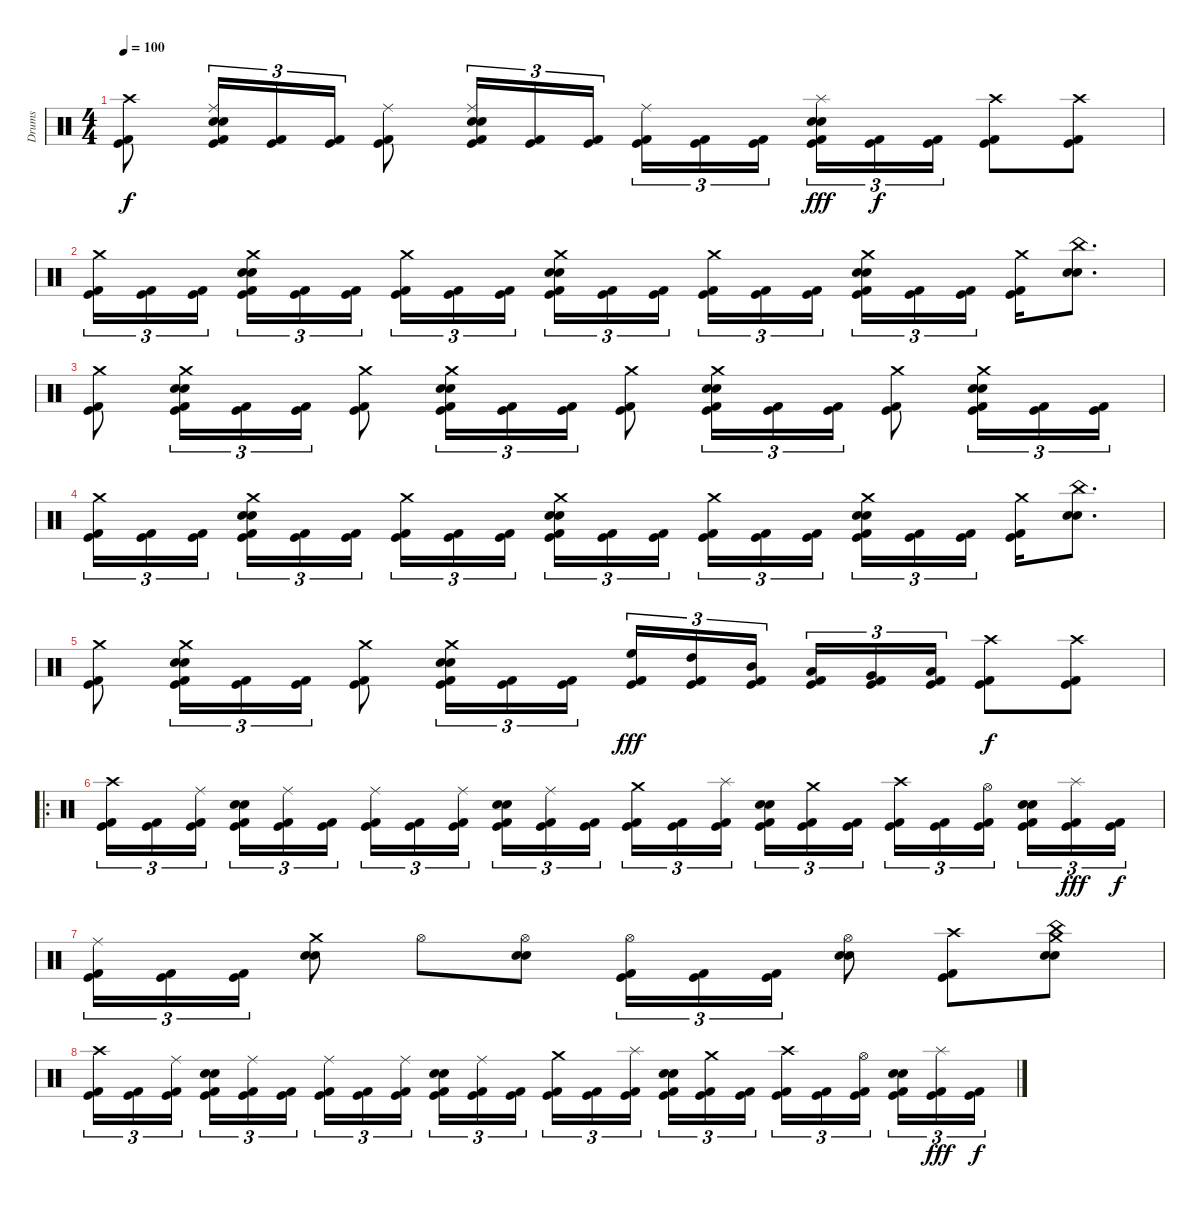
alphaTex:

\track ("Drums" "Drums") {instrument percussion}
\staff {score}
\articulation defaults
\ts (4 4)
\tempo 100
\clef neutral
\ks c
("Crash high (hit)" "Kick (hit)" "Kick (hit) 2").8{dy f} ("Ride (middle)" "Snare (hit) 2" "Electric Snare (hit)" "Kick (hit) 2" "Kick (hit)").16{tu (3 2)} ("Kick (hit) 2" "Kick (hit)").16{tu (3 2)} ("Kick (hit) 2" "Kick (hit)").16{tu (3 2)} ("Ride (middle)" "Kick (hit)" "Kick (hit) 2").8 ("Ride (middle)" "Electric Snare (hit)" "Snare (hit) 2" "Kick (hit)" "Kick (hit) 2").16{tu (3 2)} ("Kick (hit)" "Kick (hit) 2").16{tu (3 2)} ("Kick (hit)" "Kick (hit) 2").16{tu (3 2)} ("Ride (middle)" "Kick (hit)" "Kick (hit) 2").16{tu (3 2)} ("Kick (hit)" "Kick (hit) 2").16{tu (3 2)} ("Kick (hit)" "Kick (hit) 2").16{tu (3 2) beam splitsecondary} ("Splash (hit)" "Electric Snare (hit)" "Snare (hit) 2" "Kick (hit)" "Kick (hit) 2").16{tu (3 2) dy fff} ("Kick (hit)" "Kick (hit) 2").16{tu (3 2) dy f} ("Kick (hit)" "Kick (hit) 2").16{tu (3 2)} ("Crash high (hit)" "Kick (hit)" "Kick (hit) 2").8 ("Crash high (hit)" "Kick (hit)" "Kick (hit) 2").8 |
("Crash medium (hit)" "Kick (hit)" "Kick (hit) 2").16{tu (3 2)} ("Kick (hit)" "Kick (hit) 2").16{tu (3 2)} ("Kick (hit)" "Kick (hit) 2").16{tu (3 2) beam splitsecondary} ("Crash medium (hit)" "Electric Snare (hit)" "Snare (hit) 2" "Kick (hit)" "Kick (hit) 2").16{tu (3 2)} ("Kick (hit)" "Kick (hit) 2").16{tu (3 2)} ("Kick (hit)" "Kick (hit) 2").16{tu (3 2)} ("Crash medium (hit)" "Kick (hit)" "Kick (hit) 2").16{tu (3 2)} ("Kick (hit)" "Kick (hit) 2").16{tu (3 2)} ("Kick (hit)" "Kick (hit) 2").16{tu (3 2) beam splitsecondary} ("Crash medium (hit)" "Snare (hit) 2" "Electric Snare (hit)" "Kick (hit)" "Kick (hit) 2").16{tu (3 2)} ("Kick (hit)" "Kick (hit) 2").16{tu (3 2)} ("Kick (hit)" "Kick (hit) 2").16{tu (3 2)} ("Crash medium (hit)" "Kick (hit)" "Kick (hit) 2").16{tu (3 2)} ("Kick (hit)" "Kick (hit) 2").16{tu (3 2)} ("Kick (hit)" "Kick (hit) 2").16{tu (3 2) beam splitsecondary} ("Crash medium (hit)" "Electric Snare (hit)" "Snare (hit) 2" "Kick (hit)" "Kick (hit) 2").16{tu (3 2)} ("Kick (hit)" "Kick (hit) 2").16{tu (3 2)} ("Kick (hit)" "Kick (hit) 2").16{tu (3 2)} ("Crash medium (hit)" "Kick (hit)" "Kick (hit) 2").16 ("China (hit)" "Snare (hit) 2" "Electric Snare (hit)").8{d} |
("Crash medium (hit)" "Kick (hit)" "Kick (hit) 2").8 ("Crash medium (hit)" "Snare (hit) 2" "Electric Snare (hit)" "Kick (hit) 2" "Kick (hit)").16{tu (3 2)} ("Kick (hit) 2" "Kick (hit)").16{tu (3 2)} ("Kick (hit) 2" "Kick (hit)").16{tu (3 2)} ("Crash medium (hit)" "Kick (hit)" "Kick (hit) 2").8 ("Crash medium (hit)" "Electric Snare (hit)" "Snare (hit) 2" "Kick (hit)" "Kick (hit) 2").16{tu (3 2)} ("Kick (hit)" "Kick (hit) 2").16{tu (3 2)} ("Kick (hit)" "Kick (hit) 2").16{tu (3 2)} ("Crash medium (hit)" "Kick (hit)" "Kick (hit) 2").8 ("Crash medium (hit)" "Electric Snare (hit)" "Snare (hit) 2" "Kick (hit)" "Kick (hit) 2").16{tu (3 2)} ("Kick (hit)" "Kick (hit) 2").16{tu (3 2)} ("Kick (hit)" "Kick (hit) 2").16{tu (3 2)} ("Crash medium (hit)" "Kick (hit)" "Kick (hit) 2").8 ("Crash medium (hit)" "Electric Snare (hit)" "Snare (hit) 2" "Kick (hit)" "Kick (hit) 2").16{tu (3 2)} ("Kick (hit)" "Kick (hit) 2").16{tu (3 2)} ("Kick (hit)" "Kick (hit) 2").16{tu (3 2)} |
("Crash medium (hit)" "Kick (hit)" "Kick (hit) 2").16{tu (3 2)} ("Kick (hit)" "Kick (hit) 2").16{tu (3 2)} ("Kick (hit)" "Kick (hit) 2").16{tu (3 2) beam splitsecondary} ("Crash medium (hit)" "Electric Snare (hit)" "Snare (hit) 2" "Kick (hit)" "Kick (hit) 2").16{tu (3 2)} ("Kick (hit)" "Kick (hit) 2").16{tu (3 2)} ("Kick (hit)" "Kick (hit) 2").16{tu (3 2)} ("Crash medium (hit)" "Kick (hit)" "Kick (hit) 2").16{tu (3 2)} ("Kick (hit)" "Kick (hit) 2").16{tu (3 2)} ("Kick (hit)" "Kick (hit) 2").16{tu (3 2) beam splitsecondary} ("Crash medium (hit)" "Snare (hit) 2" "Electric Snare (hit)" "Kick (hit)" "Kick (hit) 2").16{tu (3 2)} ("Kick (hit)" "Kick (hit) 2").16{tu (3 2)} ("Kick (hit)" "Kick (hit) 2").16{tu (3 2)} ("Crash medium (hit)" "Kick (hit)" "Kick (hit) 2").16{tu (3 2)} ("Kick (hit)" "Kick (hit) 2").16{tu (3 2)} ("Kick (hit)" "Kick (hit) 2").16{tu (3 2) beam splitsecondary} ("Crash medium (hit)" "Electric Snare (hit)" "Snare (hit) 2" "Kick (hit)" "Kick (hit) 2").16{tu (3 2)} ("Kick (hit)" "Kick (hit) 2").16{tu (3 2)} ("Kick (hit)" "Kick (hit) 2").16{tu (3 2)} ("Crash medium (hit)" "Kick (hit)" "Kick (hit) 2").16 ("China (hit)" "Snare (hit) 2" "Electric Snare (hit)").8{d} |
("Crash medium (hit)" "Kick (hit)" "Kick (hit) 2").8 ("Crash medium (hit)" "Snare (hit) 2" "Electric Snare (hit)" "Kick (hit) 2" "Kick (hit)").16{tu (3 2)} ("Kick (hit) 2" "Kick (hit)").16{tu (3 2)} ("Kick (hit) 2" "Kick (hit)").16{tu (3 2)} ("Crash medium (hit)" "Kick (hit)" "Kick (hit) 2").8 ("Crash medium (hit)" "Electric Snare (hit)" "Snare (hit) 2" "Kick (hit)" "Kick (hit) 2").16{tu (3 2)} ("Kick (hit)" "Kick (hit) 2").16{tu (3 2)} ("Kick (hit)" "Kick (hit) 2").16{tu (3 2)} ("High Floor Tom (hit)" "Kick (hit)" "Kick (hit) 2").16{tu (3 2) dy fff} ("High Tom (hit)" "Kick (hit)" "Kick (hit) 2").16{tu (3 2)} ("Mid Tom (hit)" "Kick (hit)" "Kick (hit) 2").16{tu (3 2) beam splitsecondary} ("Low Tom (hit)" "Kick (hit)" "Kick (hit) 2").16{tu (3 2)} ("Very Low Tom (hit)" "Kick (hit)" "Kick (hit) 2").16{tu (3 2)} ("Low Floor Tom (hit)" "Kick (hit)" "Kick (hit) 2").16{tu (3 2)} ("Crash high (hit)" "Kick (hit)" "Kick (hit) 2").8{dy f} ("Crash high (hit)" "Kick (hit)" "Kick (hit) 2").8 |
\ro
("Crash high (hit)" "Kick (hit)" "Kick (hit) 2").16{tu (3 2)} ("Kick (hit)" "Kick (hit) 2").16{tu (3 2)} ("Ride (middle)" "Kick (hit)" "Kick (hit) 2").16{tu (3 2) beam splitsecondary} ("Electric Snare (hit)" "Snare (hit) 2" "Kick (hit)" "Kick (hit) 2").16{tu (3 2)} ("Ride (middle)" "Kick (hit)" "Kick (hit) 2").16{tu (3 2)} ("Kick (hit)" "Kick (hit) 2").16{tu (3 2)} ("Ride (middle)" "Kick (hit)" "Kick (hit) 2").16{tu (3 2)} ("Kick (hit)" "Kick (hit) 2").16{tu (3 2)} ("Ride (middle)" "Kick (hit)" "Kick (hit) 2").16{tu (3 2) beam splitsecondary} ("Electric Snare (hit)" "Snare (hit) 2" "Kick (hit)" "Kick (hit) 2").16{tu (3 2)} ("Ride (middle)" "Kick (hit)" "Kick (hit) 2").16{tu (3 2)} ("Kick (hit)" "Kick (hit) 2").16{tu (3 2)} ("Crash medium (hit)" "Kick (hit)" "Kick (hit) 2").16{tu (3 2)} ("Kick (hit)" "Kick (hit) 2").16{tu (3 2)} ("Splash (hit)" "Kick (hit)" "Kick (hit) 2").16{tu (3 2) beam splitsecondary} ("Electric Snare (hit)" "Snare (hit) 2" "Kick (hit)" "Kick (hit) 2").16{tu (3 2)} ("Crash medium (hit)" "Kick (hit)" "Kick (hit) 2").16{tu (3 2)} ("Kick (hit)" "Kick (hit) 2").16{tu (3 2)} ("Crash high (hit)" "Kick (hit)" "Kick (hit) 2").16{tu (3 2)} ("Kick (hit)" "Kick (hit) 2").16{tu (3 2)} ("Hi-Hat (open)" "Kick (hit)" "Kick (hit) 2").16{tu (3 2) beam splitsecondary} ("Electric Snare (hit)" "Snare (hit) 2" "Kick (hit)" "Kick (hit) 2").16{tu (3 2)} ("Splash (hit)" "Kick (hit)" "Kick (hit) 2").16{tu (3 2) dy fff} ("Kick (hit)" "Kick (hit) 2").16{tu (3 2) dy f} |
("Ride (middle)" "Kick (hit)" "Kick (hit) 2").16{tu (3 2)} ("Kick (hit)" "Kick (hit) 2").16{tu (3 2)} ("Kick (hit)" "Kick (hit) 2").16{tu (3 2)} ("Crash medium (hit)" "Electric Snare (hit)" "Snare (hit) 2").8 "Hi-Hat (open)".8 ("Hi-Hat (open)" "Electric Snare (hit)" "Snare (hit) 2").8 ("Hi-Hat (open)" "Kick (hit)" "Kick (hit) 2").16{tu (3 2)} ("Kick (hit)" "Kick (hit) 2").16{tu (3 2)} ("Kick (hit)" "Kick (hit) 2").16{tu (3 2)} ("Hi-Hat (open)" "Electric Snare (hit)" "Snare (hit) 2").8 ("Crash high (hit)" "Kick (hit)" "Kick (hit) 2").8 ("Crash medium (hit)" "China (hit)" "Electric Snare (hit)" "Snare (hit) 2").8 |
("Crash high (hit)" "Kick (hit)" "Kick (hit) 2").16{tu (3 2)} ("Kick (hit)" "Kick (hit) 2").16{tu (3 2)} ("Ride (middle)" "Kick (hit)" "Kick (hit) 2").16{tu (3 2) beam splitsecondary} ("Electric Snare (hit)" "Snare (hit) 2" "Kick (hit)" "Kick (hit) 2").16{tu (3 2)} ("Ride (middle)" "Kick (hit)" "Kick (hit) 2").16{tu (3 2)} ("Kick (hit)" "Kick (hit) 2").16{tu (3 2)} ("Ride (middle)" "Kick (hit)" "Kick (hit) 2").16{tu (3 2)} ("Kick (hit)" "Kick (hit) 2").16{tu (3 2)} ("Ride (middle)" "Kick (hit)" "Kick (hit) 2").16{tu (3 2) beam splitsecondary} ("Electric Snare (hit)" "Snare (hit) 2" "Kick (hit)" "Kick (hit) 2").16{tu (3 2)} ("Ride (middle)" "Kick (hit)" "Kick (hit) 2").16{tu (3 2)} ("Kick (hit)" "Kick (hit) 2").16{tu (3 2)} ("Crash medium (hit)" "Kick (hit)" "Kick (hit) 2").16{tu (3 2)} ("Kick (hit)" "Kick (hit) 2").16{tu (3 2)} ("Splash (hit)" "Kick (hit)" "Kick (hit) 2").16{tu (3 2) beam splitsecondary} ("Electric Snare (hit)" "Snare (hit) 2" "Kick (hit)" "Kick (hit) 2").16{tu (3 2)} ("Crash medium (hit)" "Kick (hit)" "Kick (hit) 2").16{tu (3 2)} ("Kick (hit)" "Kick (hit) 2").16{tu (3 2)} ("Crash high (hit)" "Kick (hit)" "Kick (hit) 2").16{tu (3 2)} ("Kick (hit)" "Kick (hit) 2").16{tu (3 2)} ("Hi-Hat (open)" "Kick (hit)" "Kick (hit) 2").16{tu (3 2) beam splitsecondary} ("Electric Snare (hit)" "Snare (hit) 2" "Kick (hit)" "Kick (hit) 2").16{tu (3 2)} ("Splash (hit)" "Kick (hit)" "Kick (hit) 2").16{tu (3 2) dy fff} ("Kick (hit)" "Kick (hit) 2").16{tu (3 2) dy f}
